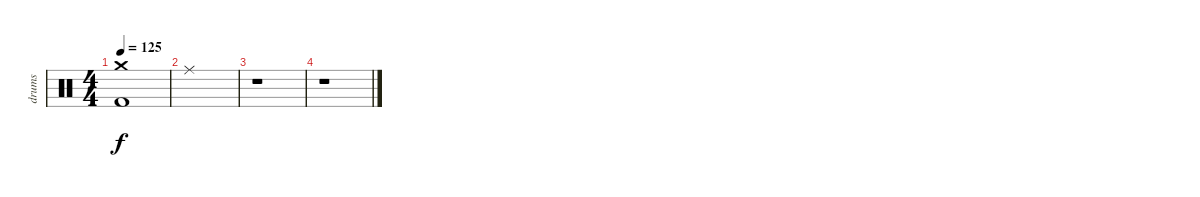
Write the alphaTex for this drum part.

\track ("drums" "drums") {instrument percussion}
\staff {score}
\articulation defaults
\ts (4 4)
\tempo 125
\clef neutral
\ks c
("Kick (hit) 2" "Crash medium (hit)").1{dy f} |
"Ride (middle)".1 |
r.1 |
r.1
